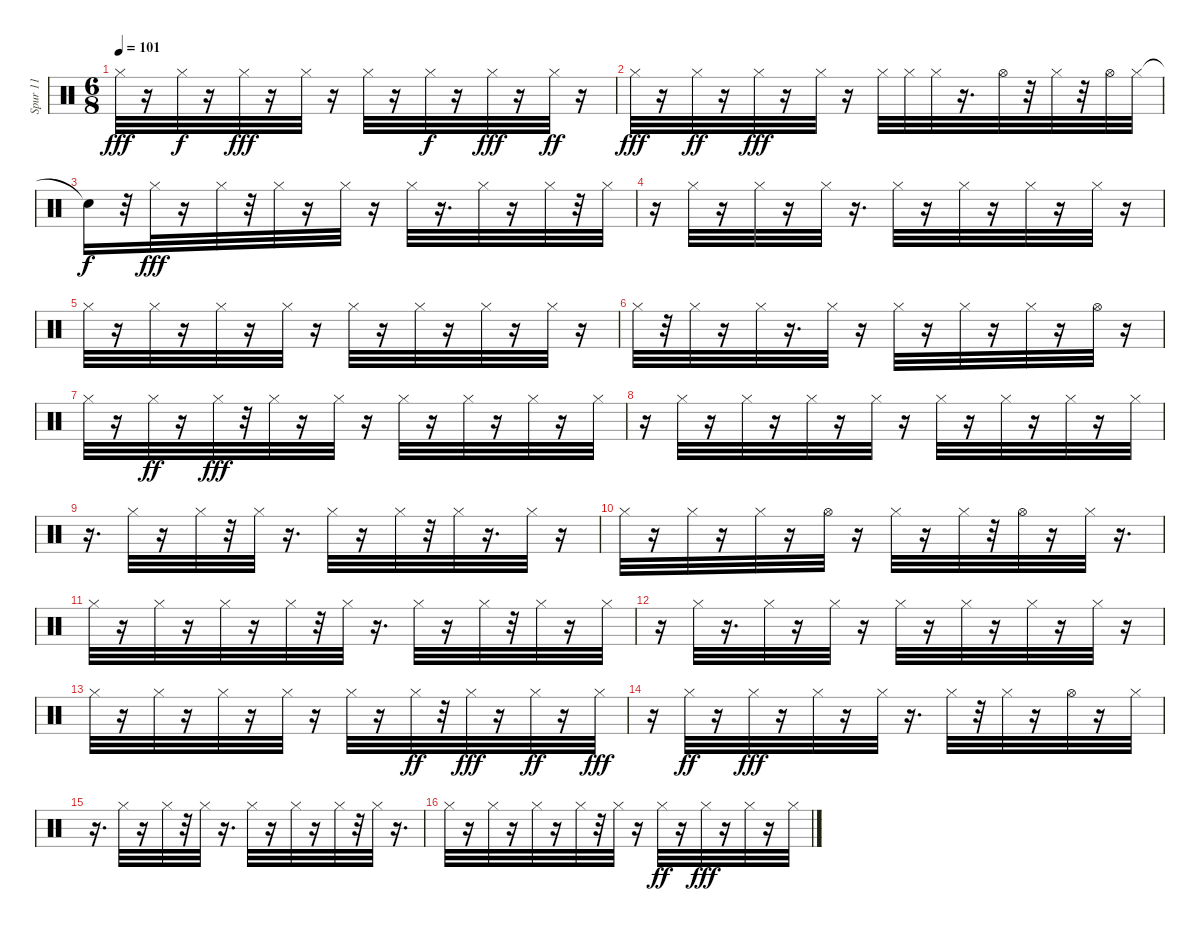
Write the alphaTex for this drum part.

\track ("Spur 11" "Spur 11") {instrument percussion}
\staff {score}
\articulation defaults
\ts (6 8)
\tempo 101
\clef neutral
\ks c "Hi-Hat (closed)".32{dy fff}
r.16 "Hi-Hat (closed)".32{dy f} r.16 "Hi-Hat (closed)".32{dy fff} r.16 "Hi-Hat (closed)".32 r.16 "Hi-Hat (closed)".32 r.16 "Hi-Hat (closed)".32{dy f} r.16 "Hi-Hat (closed)".32{dy fff} r.16 "Hi-Hat (closed)".32{dy ff} r.16 |
"Hi-Hat (closed)".32{dy fff} r.16 "Hi-Hat (closed)".32{dy ff} r.16 "Hi-Hat (closed)".32{dy fff} r.16 "Hi-Hat (closed)".32 r.16 "Hi-Hat (closed)".32 "Hi-Hat (closed)".32 "Hi-Hat (closed)".32 r.16{d} "Hi-Hat (open)".32 r.32 "Hi-Hat (closed)".32 r.32 "Hi-Hat (open)".32 "Hi-Hat (closed)".32 |
"Snare (hit)"{t}.16{dy f} r.32 "Hi-Hat (closed)".32{dy fff} r.16 "Hi-Hat (closed)".32 r.32 "Hi-Hat (closed)".32 r.16 "Hi-Hat (closed)".32 r.16 "Hi-Hat (closed)".32 r.16{d} "Hi-Hat (closed)".32 r.16 "Hi-Hat (closed)".32 r.32 "Hi-Hat (closed)".32 |
r.16 "Hi-Hat (closed)".32 r.16 "Hi-Hat (closed)".32 r.16 "Hi-Hat (closed)".32 r.16{d} "Hi-Hat (closed)".32 r.16 "Hi-Hat (closed)".32 r.16 "Hi-Hat (closed)".32 r.16 "Hi-Hat (closed)".32 r.16 |
"Hi-Hat (closed)".32 r.16 "Hi-Hat (closed)".32 r.16 "Hi-Hat (closed)".32 r.16 "Hi-Hat (closed)".32 r.16 "Hi-Hat (closed)".32 r.16 "Hi-Hat (closed)".32 r.16 "Hi-Hat (closed)".32 r.16 "Hi-Hat (closed)".32 r.16 |
"Hi-Hat (closed)".32 r.32 "Hi-Hat (closed)".32 r.16 "Hi-Hat (closed)".32 r.16{d} "Hi-Hat (closed)".32 r.16 "Hi-Hat (closed)".32 r.16 "Hi-Hat (closed)".32 r.16 "Hi-Hat (closed)".32 r.16 "Hi-Hat (open)".32 r.16 |
"Hi-Hat (closed)".32 r.16 "Hi-Hat (closed)".32{dy ff} r.16 "Hi-Hat (closed)".32{dy fff} r.32 "Hi-Hat (closed)".32 r.16 "Hi-Hat (closed)".32 r.16 "Hi-Hat (closed)".32 r.16 "Hi-Hat (closed)".32 r.16 "Hi-Hat (closed)".32 r.16 "Hi-Hat (closed)".32 |
r.16 "Hi-Hat (closed)".32 r.16 "Hi-Hat (closed)".32 r.16 "Hi-Hat (closed)".32 r.16 "Hi-Hat (closed)".32 r.16 "Hi-Hat (closed)".32 r.16 "Hi-Hat (closed)".32 r.16 "Hi-Hat (closed)".32 r.16 "Hi-Hat (closed)".32 |
r.16{d} "Hi-Hat (closed)".32 r.16 "Hi-Hat (closed)".32 r.32 "Hi-Hat (closed)".32 r.16{d} "Hi-Hat (closed)".32 r.16 "Hi-Hat (closed)".32 r.32 "Hi-Hat (closed)".32 r.16{d} "Hi-Hat (closed)".32 r.16 |
"Hi-Hat (closed)".32 r.16 "Hi-Hat (closed)".32 r.16 "Hi-Hat (closed)".32 r.16 "Hi-Hat (open)".32 r.16 "Hi-Hat (closed)".32 r.16 "Hi-Hat (closed)".32 r.32 "Hi-Hat (open)".32 r.16 "Hi-Hat (closed)".32 r.16{d} |
"Hi-Hat (closed)".32 r.16 "Hi-Hat (closed)".32 r.16 "Hi-Hat (closed)".32 r.16 "Hi-Hat (closed)".32 r.32 "Hi-Hat (closed)".32 r.16{d} "Hi-Hat (closed)".32 r.16 "Hi-Hat (closed)".32 r.32 "Hi-Hat (closed)".32 r.16 "Hi-Hat (closed)".32 |
r.16 "Hi-Hat (closed)".32 r.16{d} "Hi-Hat (closed)".32 r.16 "Hi-Hat (closed)".32 r.16 "Hi-Hat (closed)".32 r.16 "Hi-Hat (closed)".32 r.16 "Hi-Hat (closed)".32 r.16 "Hi-Hat (closed)".32 r.16 |
"Hi-Hat (closed)".32 r.16 "Hi-Hat (closed)".32 r.16 "Hi-Hat (closed)".32 r.16 "Hi-Hat (closed)".32 r.16 "Hi-Hat (closed)".32 r.16 "Hi-Hat (closed)".32{dy ff} r.32 "Hi-Hat (closed)".32{dy fff} r.16 "Hi-Hat (closed)".32{dy ff} r.16 "Hi-Hat (closed)".32{dy fff} |
r.16 "Hi-Hat (closed)".32{dy ff} r.16 "Hi-Hat (closed)".32{dy fff} r.16 "Hi-Hat (closed)".32 r.16 "Hi-Hat (closed)".32 r.16{d} "Hi-Hat (closed)".32 r.32 "Hi-Hat (closed)".32 r.16 "Hi-Hat (open)".32 r.16 "Hi-Hat (closed)".32 |
r.16{d} "Hi-Hat (closed)".32 r.16 "Hi-Hat (closed)".32 r.32 "Hi-Hat (closed)".32 r.16{d} "Hi-Hat (closed)".32 r.16 "Hi-Hat (closed)".32 r.16 "Hi-Hat (closed)".32 r.32 "Hi-Hat (closed)".32 r.16{d} |
"Hi-Hat (closed)".32 r.16 "Hi-Hat (closed)".32 r.16 "Hi-Hat (closed)".32 r.16 "Hi-Hat (closed)".32 r.32 "Hi-Hat (closed)".32 r.16 "Hi-Hat (closed)".32{dy ff} r.16 "Hi-Hat (closed)".32{dy fff} r.16 "Hi-Hat (closed)".32 r.16 "Hi-Hat (closed)".32
